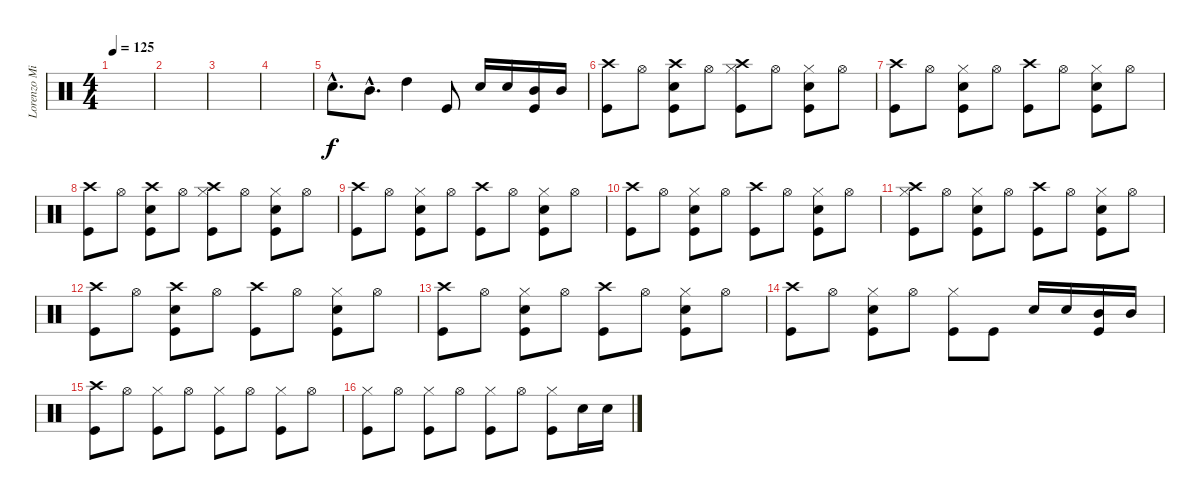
\track ("Lorenzo Milani - drums" "Lorenzo Mi") {instrument percussion}
\staff {score}
\articulation defaults
\ts (4 4)
\tempo 125
\clef neutral
\ks c
|
|
|
|
"Electric Snare (hit)"{hac}.8{d} "Mid Tom (hit)"{hac}.8{d} "High Tom (hit)".4 "Kick (hit)".8 "Electric Snare (hit)".16 "Electric Snare (hit)".16 ("Mid Tom (hit)" "Kick (hit)").16 "Mid Tom (hit)".16 |
("Crash high (hit)" "Kick (hit)").8 "Hi-Hat (open)".8 ("Crash high (hit)" "Electric Snare (hit)" "Kick (hit)").8 "Hi-Hat (open)".8 ("Crash high (hit)" "Hi-Hat (closed)" "Kick (hit)").8 "Hi-Hat (open)".8 ("Electric Snare (hit)" "Hi-Hat (closed)" "Kick (hit)").8 "Hi-Hat (open)".8 |
("Crash high (hit)" "Kick (hit)").8 "Hi-Hat (open)".8 ("Electric Snare (hit)" "Hi-Hat (closed)" "Kick (hit)").8 "Hi-Hat (open)".8 ("Crash high (hit)" "Kick (hit)").8 "Hi-Hat (open)".8 ("Electric Snare (hit)" "Hi-Hat (closed)" "Kick (hit)").8 "Hi-Hat (open)".8 |
("Crash high (hit)" "Kick (hit)").8 "Hi-Hat (open)".8 ("Crash high (hit)" "Electric Snare (hit)" "Kick (hit)").8 "Hi-Hat (open)".8 ("Crash high (hit)" "Hi-Hat (closed)" "Kick (hit)").8 "Hi-Hat (open)".8 ("Electric Snare (hit)" "Hi-Hat (closed)" "Kick (hit)").8 "Hi-Hat (open)".8 |
("Crash high (hit)" "Kick (hit)").8 "Hi-Hat (open)".8 ("Electric Snare (hit)" "Hi-Hat (closed)" "Kick (hit)").8 "Hi-Hat (open)".8 ("Crash high (hit)" "Kick (hit)").8 "Hi-Hat (open)".8 ("Electric Snare (hit)" "Hi-Hat (closed)" "Kick (hit)").8 "Hi-Hat (open)".8 |
("Crash high (hit)" "Kick (hit)").8 "Hi-Hat (open)".8 ("Electric Snare (hit)" "Hi-Hat (closed)" "Kick (hit)").8 "Hi-Hat (open)".8 ("Crash high (hit)" "Kick (hit)").8 "Hi-Hat (open)".8 ("Electric Snare (hit)" "Hi-Hat (closed)" "Kick (hit)").8 "Hi-Hat (open)".8 |
("Crash high (hit)" "Hi-Hat (closed)" "Kick (hit)").8 "Hi-Hat (open)".8 ("Electric Snare (hit)" "Hi-Hat (closed)" "Kick (hit)").8 "Hi-Hat (open)".8 ("Crash high (hit)" "Kick (hit)").8 "Hi-Hat (open)".8 ("Electric Snare (hit)" "Hi-Hat (closed)" "Kick (hit)").8 "Hi-Hat (open)".8 |
("Crash high (hit)" "Kick (hit)").8 "Hi-Hat (open)".8 ("Crash high (hit)" "Electric Snare (hit)" "Kick (hit)").8 "Hi-Hat (open)".8 ("Crash high (hit)" "Kick (hit)").8 "Hi-Hat (open)".8 ("Electric Snare (hit)" "Hi-Hat (closed)" "Kick (hit)").8 "Hi-Hat (open)".8 |
("Crash high (hit)" "Kick (hit)").8 "Hi-Hat (open)".8 ("Electric Snare (hit)" "Hi-Hat (closed)" "Kick (hit)").8 "Hi-Hat (open)".8 ("Crash high (hit)" "Kick (hit)").8 "Hi-Hat (open)".8 ("Electric Snare (hit)" "Hi-Hat (closed)" "Kick (hit)").8 "Hi-Hat (open)".8 |
("Crash high (hit)" "Kick (hit)").8 "Hi-Hat (open)".8 ("Electric Snare (hit)" "Hi-Hat (closed)" "Kick (hit)").8 "Hi-Hat (open)".8 ("Hi-Hat (closed)" "Kick (hit)").8 "Kick (hit)".8 "Electric Snare (hit)".16 "Electric Snare (hit)".16 ("Mid Tom (hit)" "Kick (hit)").16 "Mid Tom (hit)".16 |
("Crash high (hit)" "Kick (hit)").8 "Hi-Hat (open)".8 ("Hi-Hat (closed)" "Kick (hit)").8 "Hi-Hat (open)".8 ("Hi-Hat (closed)" "Kick (hit)").8 "Hi-Hat (open)".8 ("Hi-Hat (closed)" "Kick (hit)").8 "Hi-Hat (open)".8 |
("Hi-Hat (closed)" "Kick (hit)").8 "Hi-Hat (open)".8 ("Hi-Hat (closed)" "Kick (hit)").8 "Hi-Hat (open)".8 ("Hi-Hat (closed)" "Kick (hit)").8 "Hi-Hat (open)".8 ("Hi-Hat (closed)" "Kick (hit)").8 "Electric Snare (hit)".16 "Electric Snare (hit)".16
